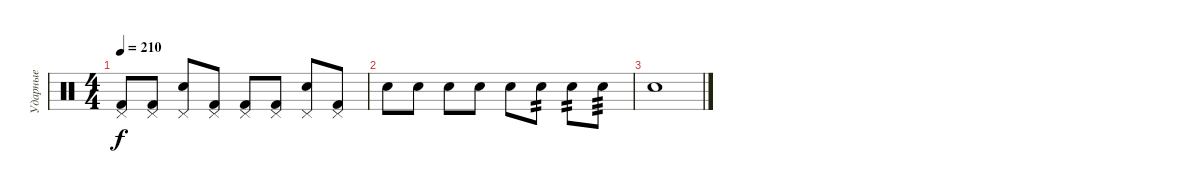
\track ("Ударные" "Ударные") {instrument percussion}
\staff {score}
\articulation defaults
\ts (4 4)
\tempo 210
\clef neutral
\ks c
("Pedal Hi-Hat (hit)" "Kick (hit) 2").8{dy f} ("Pedal Hi-Hat (hit)" "Kick (hit) 2").8 ("Pedal Hi-Hat (hit)" "Electric Snare (hit)").8 ("Pedal Hi-Hat (hit)" "Kick (hit) 2").8 ("Pedal Hi-Hat (hit)" "Kick (hit) 2").8 ("Pedal Hi-Hat (hit)" "Kick (hit) 2").8 ("Pedal Hi-Hat (hit)" "Electric Snare (hit)").8 ("Pedal Hi-Hat (hit)" "Kick (hit) 2").8 |
"Electric Snare (hit)".8 "Electric Snare (hit)".8 "Electric Snare (hit)".8 "Electric Snare (hit)".8 "Electric Snare (hit)".8 "Electric Snare (hit)".8{tp 2} "Electric Snare (hit)".8{tp 2} "Electric Snare (hit)".8{tp 3} |
"Electric Snare (hit)".1
